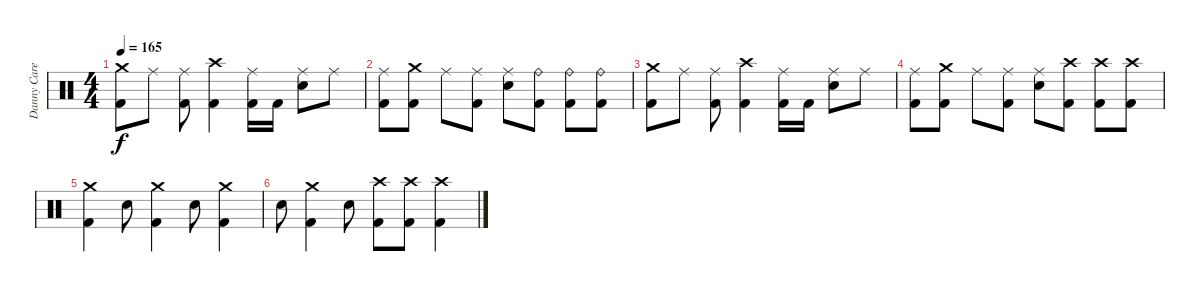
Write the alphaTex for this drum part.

\track ("Danny Carey / drums" "Danny Care") {instrument percussion}
\staff {score}
\articulation defaults
\ts (4 4)
\tempo 165
\clef neutral
\ks c
("Crash medium (hit)" "Kick (hit) 2").8{dy f} "Ride (middle)".8 ("Ride (middle)" "Kick (hit) 2").8 ("Crash high (hit)" "Kick (hit) 2").4 ("Ride (middle)" "Kick (hit) 2").16 "Kick (hit) 2".16 ("Ride (middle)" "Electric Snare (hit)").8 "Ride (middle)".8 |
("Ride (middle)" "Kick (hit) 2").8 ("Crash medium (hit)" "Kick (hit) 2").8 "Ride (middle)".8 ("Ride (middle)" "Kick (hit) 2").8 ("Ride (middle)" "Electric Snare (hit)").8 ("Ride (bell)" "Kick (hit) 2").8 ("Ride (bell)" "Kick (hit) 2").8 ("Ride (bell)" "Kick (hit) 2").8 |
("Crash medium (hit)" "Kick (hit) 2").8 "Ride (middle)".8 ("Ride (middle)" "Kick (hit) 2").8 ("Crash high (hit)" "Kick (hit) 2").4 ("Ride (middle)" "Kick (hit) 2").16 "Kick (hit) 2".16 ("Ride (middle)" "Electric Snare (hit)").8 "Ride (middle)".8 |
("Ride (middle)" "Kick (hit) 2").8 ("Crash medium (hit)" "Kick (hit) 2").8 "Ride (middle)".8 ("Ride (middle)" "Kick (hit) 2").8 ("Ride (middle)" "Electric Snare (hit)").8 ("Crash high (hit)" "Kick (hit) 2").8 ("Crash high (hit)" "Kick (hit) 2").8 ("Crash high (hit)" "Kick (hit) 2").8 |
("Crash medium (hit)" "Kick (hit) 2").4 "Electric Snare (hit)".8 ("Crash medium (hit)" "Kick (hit) 2").4 "Electric Snare (hit)".8 ("Crash medium (hit)" "Kick (hit) 2").4 |
"Electric Snare (hit)".8 ("Crash medium (hit)" "Kick (hit) 2").4 "Electric Snare (hit)".8 ("Crash high (hit)" "Kick (hit) 2").8 ("Crash high (hit)" "Kick (hit) 2").8 ("Crash high (hit)" "Kick (hit) 2").4
